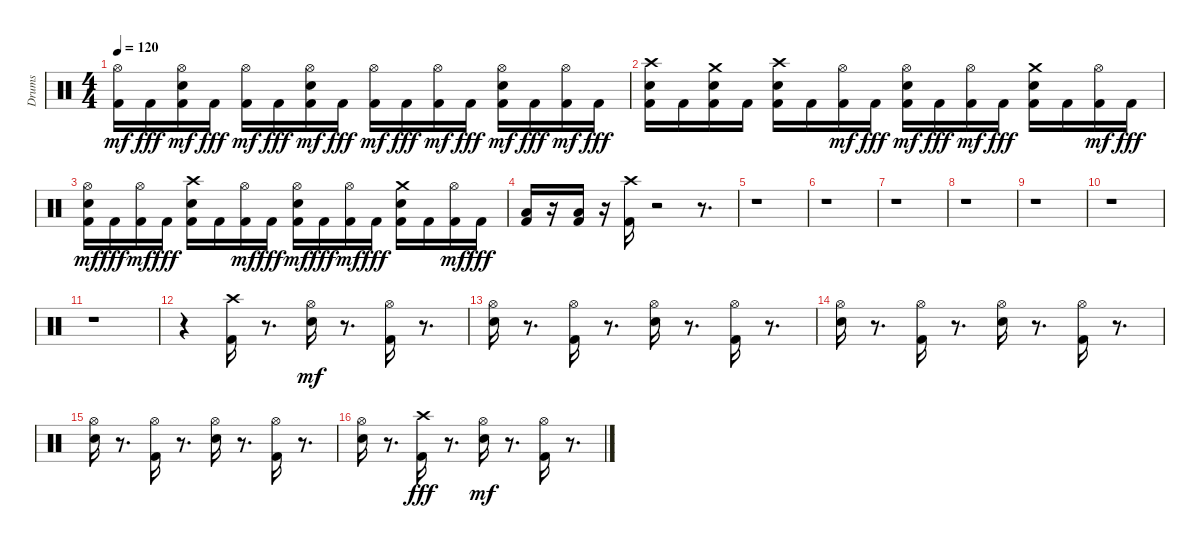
\track ("Drums" "Drums") {instrument percussion}
\staff {score}
\articulation defaults
\ts (4 4)
\tempo 120
\clef neutral
\ks c
("Kick (hit) 2" "Hi-Hat (open)").16{dy mf} "Kick (hit) 2".16{dy fff} ("Kick (hit) 2" "Electric Snare (hit)" "Hi-Hat (open)").16{dy mf} "Kick (hit) 2".16{dy fff} ("Kick (hit) 2" "Hi-Hat (open)").16{dy mf} "Kick (hit) 2".16{dy fff} ("Kick (hit) 2" "Electric Snare (hit)" "Hi-Hat (open)").16{dy mf} "Kick (hit) 2".16{dy fff} ("Kick (hit) 2" "Hi-Hat (open)").16{dy mf} "Kick (hit) 2".16{dy fff} ("Kick (hit) 2" "Hi-Hat (open)").16{dy mf} "Kick (hit) 2".16{dy fff} ("Kick (hit) 2" "Electric Snare (hit)" "Hi-Hat (open)").16{dy mf} "Kick (hit) 2".16{dy fff} ("Kick (hit) 2" "Hi-Hat (open)").16{dy mf} "Kick (hit) 2".16{dy fff} |
("Kick (hit) 2" "Electric Snare (hit)" "Crash high (hit)").16 "Kick (hit) 2".16 ("Kick (hit) 2" "Electric Snare (hit)" "Crash medium (hit)").16 "Kick (hit) 2".16 ("Kick (hit) 2" "Electric Snare (hit)" "Crash high (hit)").16 "Kick (hit) 2".16 ("Kick (hit) 2" "Hi-Hat (open)").16{dy mf} "Kick (hit) 2".16{dy fff} ("Kick (hit) 2" "Electric Snare (hit)" "Hi-Hat (open)").16{dy mf} "Kick (hit) 2".16{dy fff} ("Kick (hit) 2" "Hi-Hat (open)").16{dy mf} "Kick (hit) 2".16{dy fff} ("Kick (hit) 2" "Electric Snare (hit)" "Crash medium (hit)").16 "Kick (hit) 2".16 ("Kick (hit) 2" "Hi-Hat (open)").16{dy mf} "Kick (hit) 2".16{dy fff} |
("Kick (hit) 2" "Electric Snare (hit)" "Hi-Hat (open)").16{dy mf} "Kick (hit) 2".16{dy fff} ("Kick (hit) 2" "Hi-Hat (open)").16{dy mf} "Kick (hit) 2".16{dy fff} ("Kick (hit) 2" "Electric Snare (hit)" "Crash high (hit)").16 "Kick (hit) 2".16 ("Kick (hit) 2" "Hi-Hat (open)").16{dy mf} "Kick (hit) 2".16{dy fff} ("Kick (hit) 2" "Electric Snare (hit)" "Hi-Hat (open)").16{dy mf} "Kick (hit) 2".16{dy fff} ("Kick (hit) 2" "Hi-Hat (open)").16{dy mf} "Kick (hit) 2".16{dy fff} ("Kick (hit) 2" "Electric Snare (hit)" "Crash medium (hit)").16 "Kick (hit) 2".16 ("Kick (hit) 2" "Hi-Hat (open)").16{dy mf} "Kick (hit) 2".16{dy fff} |
("Kick (hit) 2" "Low Floor Tom (hit)").16 r.16 ("Kick (hit) 2" "Low Floor Tom (hit)").16 r.16 ("Kick (hit) 2" "Crash high (hit)").16 r.2 r.8{d} |
r.1 |
r.1 |
r.1 |
r.1 |
r.1 |
r.1 |
r.1 |
r.4 ("Kick (hit) 2" "Crash high (hit)").16 r.8{d} ("Electric Snare (hit)" "Hi-Hat (open)").16{dy mf} r.8{d} ("Kick (hit) 2" "Hi-Hat (open)").16 r.8{d} |
("Electric Snare (hit)" "Hi-Hat (open)").16 r.8{d} ("Kick (hit) 2" "Hi-Hat (open)").16 r.8{d} ("Electric Snare (hit)" "Hi-Hat (open)").16 r.8{d} ("Kick (hit) 2" "Hi-Hat (open)").16 r.8{d} |
("Electric Snare (hit)" "Hi-Hat (open)").16 r.8{d} ("Kick (hit) 2" "Hi-Hat (open)").16 r.8{d} ("Electric Snare (hit)" "Hi-Hat (open)").16 r.8{d} ("Kick (hit) 2" "Hi-Hat (open)").16 r.8{d} |
("Electric Snare (hit)" "Hi-Hat (open)").16 r.8{d} ("Kick (hit) 2" "Hi-Hat (open)").16 r.8{d} ("Electric Snare (hit)" "Hi-Hat (open)").16 r.8{d} ("Kick (hit) 2" "Hi-Hat (open)").16 r.8{d} |
("Electric Snare (hit)" "Hi-Hat (open)").16 r.8{d} ("Kick (hit) 2" "Crash high (hit)").16{dy fff} r.8{d} ("Electric Snare (hit)" "Hi-Hat (open)").16{dy mf} r.8{d} ("Kick (hit) 2" "Hi-Hat (open)").16 r.8{d}
